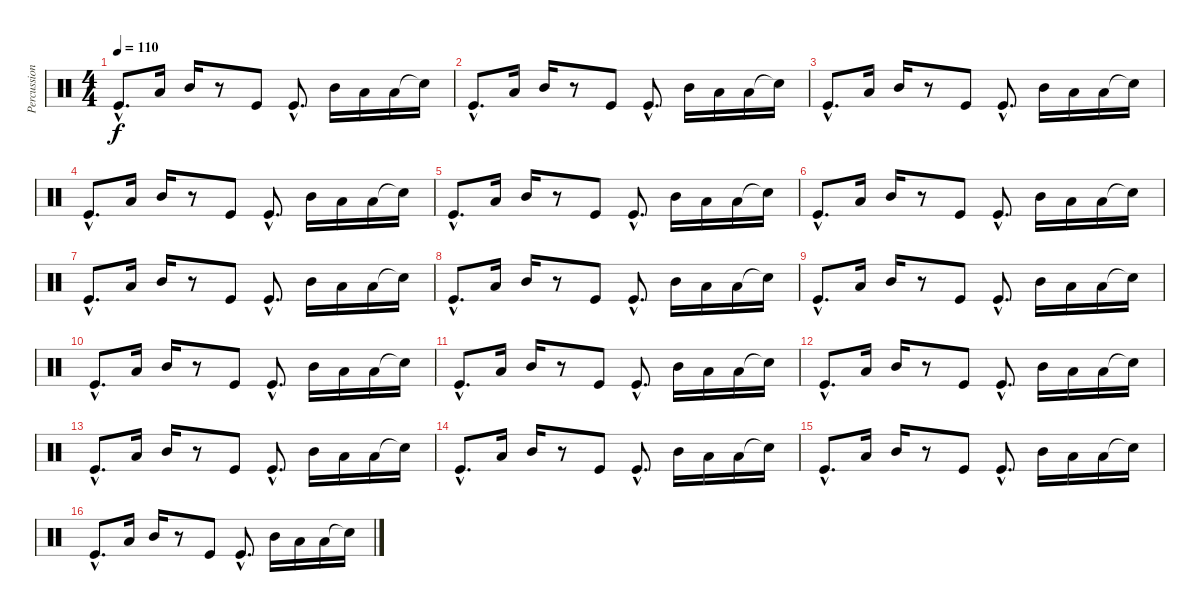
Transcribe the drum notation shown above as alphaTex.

\track ("Percussions" "Percussion") {instrument percussion}
\staff {score}
\articulation defaults
\ts (4 4)
\tempo 110
\clef neutral
\ks c "Kick (hit)"{hac}.8{d dy f} "Low Floor Tom (hit)".16 "Mid Tom (hit)".16
r.8 "Kick (hit)".8 "Kick (hit)"{hac}.8{d} "Mid Tom (hit)".16 "Low Tom (hit)".16 "Low Floor Tom (hit)".16 "Snare (hit)"{t}.16 |
"Kick (hit)"{hac}.8{d} "Low Floor Tom (hit)".16 "Mid Tom (hit)".16 r.8 "Kick (hit)".8 "Kick (hit)"{hac}.8{d} "Mid Tom (hit)".16 "Low Tom (hit)".16 "Low Floor Tom (hit)".16 "Snare (hit)"{t}.16 |
"Kick (hit)"{hac}.8{d} "Low Floor Tom (hit)".16 "Mid Tom (hit)".16 r.8 "Kick (hit)".8 "Kick (hit)"{hac}.8{d} "Mid Tom (hit)".16 "Low Tom (hit)".16 "Low Floor Tom (hit)".16 "Snare (hit)"{t}.16 |
"Kick (hit)"{hac}.8{d} "Low Floor Tom (hit)".16 "Mid Tom (hit)".16 r.8 "Kick (hit)".8 "Kick (hit)"{hac}.8{d} "Mid Tom (hit)".16 "Low Tom (hit)".16 "Low Floor Tom (hit)".16 "Snare (hit)"{t}.16 |
"Kick (hit)"{hac}.8{d} "Low Floor Tom (hit)".16 "Mid Tom (hit)".16 r.8 "Kick (hit)".8 "Kick (hit)"{hac}.8{d} "Mid Tom (hit)".16 "Low Tom (hit)".16 "Low Floor Tom (hit)".16 "Snare (hit)"{t}.16 |
"Kick (hit)"{hac}.8{d} "Low Floor Tom (hit)".16 "Mid Tom (hit)".16 r.8 "Kick (hit)".8 "Kick (hit)"{hac}.8{d} "Mid Tom (hit)".16 "Low Tom (hit)".16 "Low Floor Tom (hit)".16 "Snare (hit)"{t}.16 |
"Kick (hit)"{hac}.8{d} "Low Floor Tom (hit)".16 "Mid Tom (hit)".16 r.8 "Kick (hit)".8 "Kick (hit)"{hac}.8{d} "Mid Tom (hit)".16 "Low Tom (hit)".16 "Low Floor Tom (hit)".16 "Snare (hit)"{t}.16 |
"Kick (hit)"{hac}.8{d} "Low Floor Tom (hit)".16 "Mid Tom (hit)".16 r.8 "Kick (hit)".8 "Kick (hit)"{hac}.8{d} "Mid Tom (hit)".16 "Low Tom (hit)".16 "Low Floor Tom (hit)".16 "Snare (hit)"{t}.16 |
"Kick (hit)"{hac}.8{d} "Low Floor Tom (hit)".16 "Mid Tom (hit)".16 r.8 "Kick (hit)".8 "Kick (hit)"{hac}.8{d} "Mid Tom (hit)".16 "Low Tom (hit)".16 "Low Floor Tom (hit)".16 "Snare (hit)"{t}.16 |
"Kick (hit)"{hac}.8{d} "Low Floor Tom (hit)".16 "Mid Tom (hit)".16 r.8 "Kick (hit)".8 "Kick (hit)"{hac}.8{d} "Mid Tom (hit)".16 "Low Tom (hit)".16 "Low Floor Tom (hit)".16 "Snare (hit)"{t}.16 |
"Kick (hit)"{hac}.8{d} "Low Floor Tom (hit)".16 "Mid Tom (hit)".16 r.8 "Kick (hit)".8 "Kick (hit)"{hac}.8{d} "Mid Tom (hit)".16 "Low Tom (hit)".16 "Low Floor Tom (hit)".16 "Snare (hit)"{t}.16 |
"Kick (hit)"{hac}.8{d} "Low Floor Tom (hit)".16 "Mid Tom (hit)".16 r.8 "Kick (hit)".8 "Kick (hit)"{hac}.8{d} "Mid Tom (hit)".16 "Low Tom (hit)".16 "Low Floor Tom (hit)".16 "Snare (hit)"{t}.16 |
"Kick (hit)"{hac}.8{d} "Low Floor Tom (hit)".16 "Mid Tom (hit)".16 r.8 "Kick (hit)".8 "Kick (hit)"{hac}.8{d} "Mid Tom (hit)".16 "Low Tom (hit)".16 "Low Floor Tom (hit)".16 "Snare (hit)"{t}.16 |
"Kick (hit)"{hac}.8{d} "Low Floor Tom (hit)".16 "Mid Tom (hit)".16 r.8 "Kick (hit)".8 "Kick (hit)"{hac}.8{d} "Mid Tom (hit)".16 "Low Tom (hit)".16 "Low Floor Tom (hit)".16 "Snare (hit)"{t}.16 |
"Kick (hit)"{hac}.8{d} "Low Floor Tom (hit)".16 "Mid Tom (hit)".16 r.8 "Kick (hit)".8 "Kick (hit)"{hac}.8{d} "Mid Tom (hit)".16 "Low Tom (hit)".16 "Low Floor Tom (hit)".16 "Snare (hit)"{t}.16 |
"Kick (hit)"{hac}.8{d} "Low Floor Tom (hit)".16 "Mid Tom (hit)".16 r.8 "Kick (hit)".8 "Kick (hit)"{hac}.8{d} "Mid Tom (hit)".16 "Low Tom (hit)".16 "Low Floor Tom (hit)".16 "Snare (hit)"{t}.16
